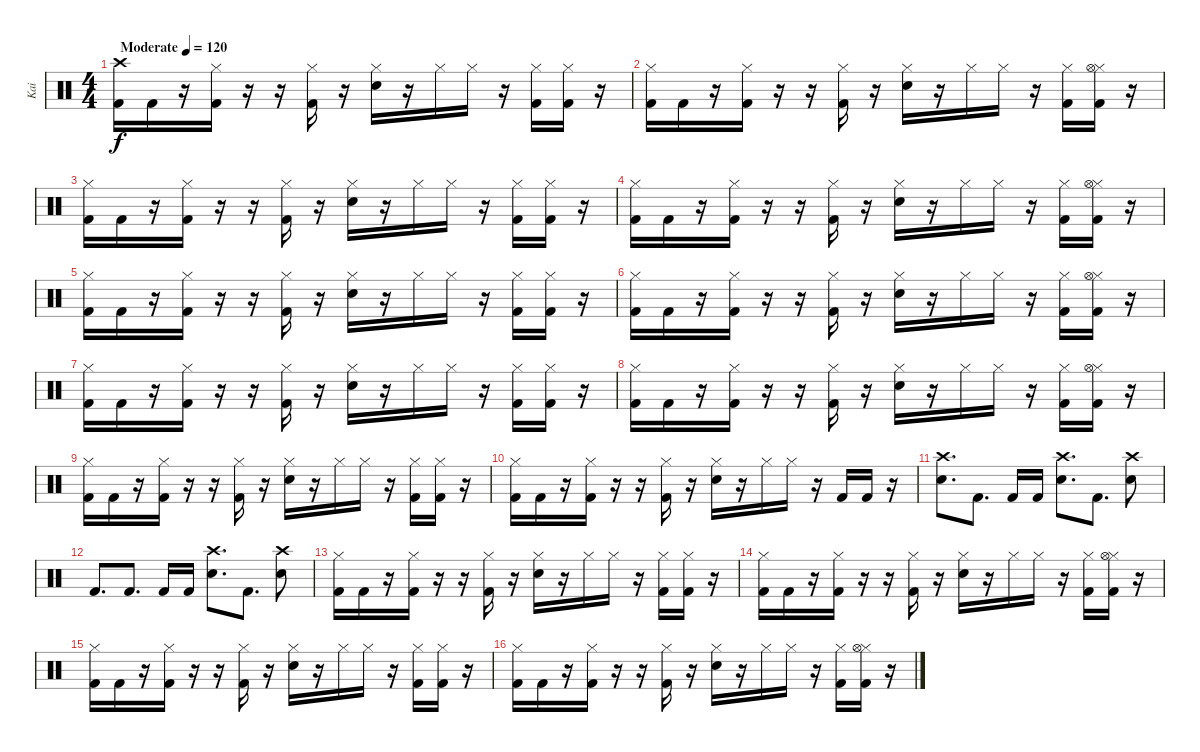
\track ("Kai" "Kai") {instrument percussion}
\staff {score}
\articulation defaults
\ts (4 4)
\tempo (120 "Moderate")
\clef neutral
\ks c
("Crash high (hit)" "Kick (hit) 2").16{dy f} "Kick (hit) 2".16 r.16 ("Hi-Hat (closed)" "Kick (hit) 2").16 r.16 r.16 ("Hi-Hat (closed)" "Kick (hit) 2").16 r.16 ("Hi-Hat (closed)" "Electric Snare (hit)").16 r.16 "Hi-Hat (closed)".16 "Hi-Hat (closed)".16 r.16 ("Hi-Hat (closed)" "Kick (hit) 2").16 ("Hi-Hat (closed)" "Kick (hit) 2").16 r.16 |
("Hi-Hat (closed)" "Kick (hit) 2").16 "Kick (hit) 2".16 r.16 ("Hi-Hat (closed)" "Kick (hit) 2").16 r.16 r.16 ("Hi-Hat (closed)" "Kick (hit) 2").16 r.16 ("Hi-Hat (closed)" "Electric Snare (hit)").16 r.16 "Hi-Hat (closed)".16 "Hi-Hat (closed)".16 r.16 ("Hi-Hat (closed)" "Kick (hit) 2").16 ("Hi-Hat (closed)" "Hi-Hat (open)" "Kick (hit) 2").16 r.16 |
("Hi-Hat (closed)" "Kick (hit) 2").16 "Kick (hit) 2".16 r.16 ("Hi-Hat (closed)" "Kick (hit) 2").16 r.16 r.16 ("Hi-Hat (closed)" "Kick (hit) 2").16 r.16 ("Hi-Hat (closed)" "Electric Snare (hit)").16 r.16 "Hi-Hat (closed)".16 "Hi-Hat (closed)".16 r.16 ("Hi-Hat (closed)" "Kick (hit) 2").16 ("Hi-Hat (closed)" "Kick (hit) 2").16 r.16 |
("Hi-Hat (closed)" "Kick (hit) 2").16 "Kick (hit) 2".16 r.16 ("Hi-Hat (closed)" "Kick (hit) 2").16 r.16 r.16 ("Hi-Hat (closed)" "Kick (hit) 2").16 r.16 ("Hi-Hat (closed)" "Electric Snare (hit)").16 r.16 "Hi-Hat (closed)".16 "Hi-Hat (closed)".16 r.16 ("Hi-Hat (closed)" "Kick (hit) 2").16 ("Hi-Hat (closed)" "Hi-Hat (open)" "Kick (hit) 2").16 r.16 |
("Hi-Hat (closed)" "Kick (hit) 2").16 "Kick (hit) 2".16 r.16 ("Hi-Hat (closed)" "Kick (hit) 2").16 r.16 r.16 ("Hi-Hat (closed)" "Kick (hit) 2").16 r.16 ("Hi-Hat (closed)" "Electric Snare (hit)").16 r.16 "Hi-Hat (closed)".16 "Hi-Hat (closed)".16 r.16 ("Hi-Hat (closed)" "Kick (hit) 2").16 ("Hi-Hat (closed)" "Kick (hit) 2").16 r.16 |
("Hi-Hat (closed)" "Kick (hit) 2").16 "Kick (hit) 2".16 r.16 ("Hi-Hat (closed)" "Kick (hit) 2").16 r.16 r.16 ("Hi-Hat (closed)" "Kick (hit) 2").16 r.16 ("Hi-Hat (closed)" "Electric Snare (hit)").16 r.16 "Hi-Hat (closed)".16 "Hi-Hat (closed)".16 r.16 ("Hi-Hat (closed)" "Kick (hit) 2").16 ("Hi-Hat (closed)" "Hi-Hat (open)" "Kick (hit) 2").16 r.16 |
("Hi-Hat (closed)" "Kick (hit) 2").16 "Kick (hit) 2".16 r.16 ("Hi-Hat (closed)" "Kick (hit) 2").16 r.16 r.16 ("Hi-Hat (closed)" "Kick (hit) 2").16 r.16 ("Hi-Hat (closed)" "Electric Snare (hit)").16 r.16 "Hi-Hat (closed)".16 "Hi-Hat (closed)".16 r.16 ("Hi-Hat (closed)" "Kick (hit) 2").16 ("Hi-Hat (closed)" "Kick (hit) 2").16 r.16 |
("Hi-Hat (closed)" "Kick (hit) 2").16 "Kick (hit) 2".16 r.16 ("Hi-Hat (closed)" "Kick (hit) 2").16 r.16 r.16 ("Hi-Hat (closed)" "Kick (hit) 2").16 r.16 ("Hi-Hat (closed)" "Electric Snare (hit)").16 r.16 "Hi-Hat (closed)".16 "Hi-Hat (closed)".16 r.16 ("Hi-Hat (closed)" "Kick (hit) 2").16 ("Hi-Hat (closed)" "Hi-Hat (open)" "Kick (hit) 2").16 r.16 |
("Hi-Hat (closed)" "Kick (hit) 2").16 "Kick (hit) 2".16 r.16 ("Hi-Hat (closed)" "Kick (hit) 2").16 r.16 r.16 ("Hi-Hat (closed)" "Kick (hit) 2").16 r.16 ("Hi-Hat (closed)" "Electric Snare (hit)").16 r.16 "Hi-Hat (closed)".16 "Hi-Hat (closed)".16 r.16 ("Hi-Hat (closed)" "Kick (hit) 2").16 ("Hi-Hat (closed)" "Kick (hit) 2").16 r.16 |
("Hi-Hat (closed)" "Kick (hit) 2").16 "Kick (hit) 2".16 r.16 ("Hi-Hat (closed)" "Kick (hit) 2").16 r.16 r.16 ("Hi-Hat (closed)" "Kick (hit) 2").16 r.16 ("Hi-Hat (closed)" "Electric Snare (hit)").16 r.16 "Hi-Hat (closed)".16 "Hi-Hat (closed)".16 r.16 "Kick (hit) 2".16 "Kick (hit) 2".16 r.16 |
("Crash high (hit)" "Electric Snare (hit)").8{d} "Kick (hit) 2".8{d} "Kick (hit) 2".16 "Kick (hit) 2".16 ("Crash high (hit)" "Electric Snare (hit)").8{d} "Kick (hit) 2".8{d} ("Crash high (hit)" "Electric Snare (hit)").8 |
"Kick (hit) 2".8{d} "Kick (hit) 2".8{d} "Kick (hit) 2".16 "Kick (hit) 2".16 ("Crash high (hit)" "Electric Snare (hit)").8{d} "Kick (hit) 2".8{d} ("Crash high (hit)" "Electric Snare (hit)").8 |
("Hi-Hat (closed)" "Kick (hit) 2").16 "Kick (hit) 2".16 r.16 ("Hi-Hat (closed)" "Kick (hit) 2").16 r.16 r.16 ("Hi-Hat (closed)" "Kick (hit) 2").16 r.16 ("Hi-Hat (closed)" "Electric Snare (hit)").16 r.16 "Hi-Hat (closed)".16 "Hi-Hat (closed)".16 r.16 ("Hi-Hat (closed)" "Kick (hit) 2").16 ("Hi-Hat (closed)" "Kick (hit) 2").16 r.16 |
("Hi-Hat (closed)" "Kick (hit) 2").16 "Kick (hit) 2".16 r.16 ("Hi-Hat (closed)" "Kick (hit) 2").16 r.16 r.16 ("Hi-Hat (closed)" "Kick (hit) 2").16 r.16 ("Hi-Hat (closed)" "Electric Snare (hit)").16 r.16 "Hi-Hat (closed)".16 "Hi-Hat (closed)".16 r.16 ("Hi-Hat (closed)" "Kick (hit) 2").16 ("Hi-Hat (closed)" "Hi-Hat (open)" "Kick (hit) 2").16 r.16 |
("Hi-Hat (closed)" "Kick (hit) 2").16 "Kick (hit) 2".16 r.16 ("Hi-Hat (closed)" "Kick (hit) 2").16 r.16 r.16 ("Hi-Hat (closed)" "Kick (hit) 2").16 r.16 ("Hi-Hat (closed)" "Electric Snare (hit)").16 r.16 "Hi-Hat (closed)".16 "Hi-Hat (closed)".16 r.16 ("Hi-Hat (closed)" "Kick (hit) 2").16 ("Hi-Hat (closed)" "Kick (hit) 2").16 r.16 |
("Hi-Hat (closed)" "Kick (hit) 2").16 "Kick (hit) 2".16 r.16 ("Hi-Hat (closed)" "Kick (hit) 2").16 r.16 r.16 ("Hi-Hat (closed)" "Kick (hit) 2").16 r.16 ("Hi-Hat (closed)" "Electric Snare (hit)").16 r.16 "Hi-Hat (closed)".16 "Hi-Hat (closed)".16 r.16 ("Hi-Hat (closed)" "Kick (hit) 2").16 ("Hi-Hat (closed)" "Hi-Hat (open)" "Kick (hit) 2").16 r.16
